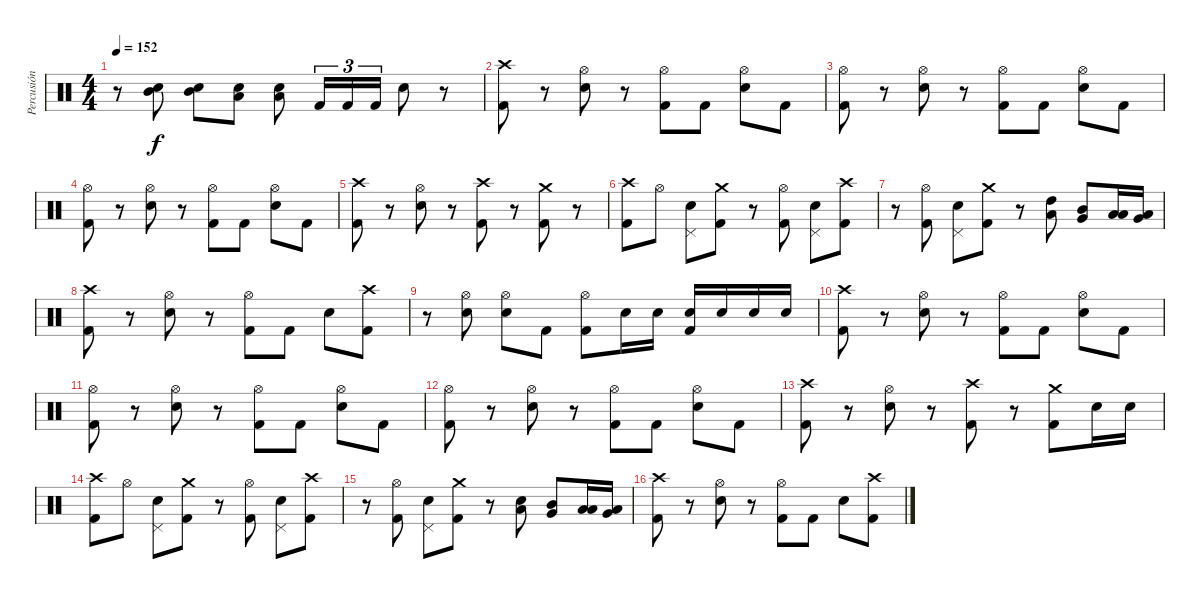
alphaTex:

\track ("Percusión" "Percusión") {instrument percussion}
\staff {score}
\articulation defaults
\ts (4 4)
\tempo 152
\clef neutral
\ks c
r.8{dy f} ("Snare (hit) 2" "Mid Tom (hit)").8 ("Snare (hit) 2" "Mid Tom (hit)").8 ("Snare (hit) 2" "Low Tom (hit)").8 ("Snare (hit) 2" "Low Tom (hit)").8 "Kick (hit) 2".16{tu (3 2)} "Kick (hit) 2".16{tu (3 2)} "Kick (hit) 2".16{tu (3 2)} "Snare (hit) 2".8 r.8 |
("Kick (hit) 2" "Crash high (hit)").8 r.8 ("Snare (hit) 2" "Hi-Hat (open)").8 r.8 ("Kick (hit) 2" "Hi-Hat (open)").8 "Kick (hit) 2".8 ("Snare (hit) 2" "Hi-Hat (open)").8 "Kick (hit) 2".8 |
("Kick (hit) 2" "Hi-Hat (open)").8 r.8 ("Snare (hit) 2" "Hi-Hat (open)").8 r.8 ("Kick (hit) 2" "Hi-Hat (open)").8 "Kick (hit) 2".8 ("Snare (hit) 2" "Hi-Hat (open)").8 "Kick (hit) 2".8 |
("Kick (hit) 2" "Hi-Hat (open)").8 r.8 ("Snare (hit) 2" "Hi-Hat (open)").8 r.8 ("Kick (hit) 2" "Hi-Hat (open)").8 "Kick (hit) 2".8 ("Snare (hit) 2" "Hi-Hat (open)").8 "Kick (hit) 2".8 |
("Kick (hit) 2" "Crash high (hit)").8 r.8 ("Snare (hit) 2" "Hi-Hat (open)").8 r.8 ("Kick (hit) 2" "Crash high (hit)").8 r.8 ("Kick (hit) 2" "Crash medium (hit)").8 r.8 |
("Kick (hit) 2" "Crash high (hit)").8 "Hi-Hat (open)".8 ("Snare (hit) 2" "Pedal Hi-Hat (hit)").8 ("Kick (hit) 2" "Crash medium (hit)").8 r.8 ("Kick (hit) 2" "Hi-Hat (open)").8 ("Snare (hit) 2" "Pedal Hi-Hat (hit)").8 ("Kick (hit) 2" "Crash high (hit)").8 |
r.8 ("Kick (hit) 2" "Hi-Hat (open)").8 ("Snare (hit) 2" "Pedal Hi-Hat (hit)").8 ("Kick (hit) 2" "Crash medium (hit)").8 r.8 ("High Tom (hit)" "Low Tom (hit)").8 ("Mid Tom (hit)" "Very Low Tom (hit)").8 ("Low Tom (hit)" "Low Floor Tom (hit)").16 ("Very Low Tom (hit)" "Low Floor Tom (hit)").16 |
("Kick (hit) 2" "Crash high (hit)").8 r.8 ("Snare (hit) 2" "Hi-Hat (open)").8 r.8 ("Kick (hit) 2" "Hi-Hat (open)").8 "Kick (hit) 2".8 "Snare (hit) 2".8 ("Kick (hit) 2" "Crash high (hit)").8 |
r.8 ("Snare (hit) 2" "Hi-Hat (open)").8 ("Snare (hit) 2" "Hi-Hat (open)").8 "Kick (hit) 2".8 ("Kick (hit) 2" "Hi-Hat (open)").8 "Snare (hit) 2".16 "Snare (hit) 2".16 ("Kick (hit) 2" "Snare (hit) 2").16 "Snare (hit) 2".16 "Snare (hit) 2".16 "Snare (hit) 2".16 |
("Kick (hit) 2" "Crash high (hit)").8 r.8 ("Snare (hit) 2" "Hi-Hat (open)").8 r.8 ("Kick (hit) 2" "Hi-Hat (open)").8 "Kick (hit) 2".8 ("Snare (hit) 2" "Hi-Hat (open)").8 "Kick (hit) 2".8 |
("Kick (hit) 2" "Hi-Hat (open)").8 r.8 ("Snare (hit) 2" "Hi-Hat (open)").8 r.8 ("Kick (hit) 2" "Hi-Hat (open)").8 "Kick (hit) 2".8 ("Snare (hit) 2" "Hi-Hat (open)").8 "Kick (hit) 2".8 |
("Kick (hit) 2" "Hi-Hat (open)").8 r.8 ("Snare (hit) 2" "Hi-Hat (open)").8 r.8 ("Kick (hit) 2" "Hi-Hat (open)").8 "Kick (hit) 2".8 ("Snare (hit) 2" "Hi-Hat (open)").8 "Kick (hit) 2".8 |
("Kick (hit) 2" "Crash high (hit)").8 r.8 ("Snare (hit) 2" "Hi-Hat (open)").8 r.8 ("Kick (hit) 2" "Crash high (hit)").8 r.8 ("Kick (hit) 2" "Crash medium (hit)").8 "Snare (hit) 2".16 "Snare (hit) 2".16 |
("Kick (hit) 2" "Crash high (hit)").8 "Hi-Hat (open)".8 ("Snare (hit) 2" "Pedal Hi-Hat (hit)").8 ("Kick (hit) 2" "Crash medium (hit)").8 r.8 ("Kick (hit) 2" "Hi-Hat (open)").8 ("Snare (hit) 2" "Pedal Hi-Hat (hit)").8 ("Kick (hit) 2" "Crash high (hit)").8 |
r.8 ("Kick (hit) 2" "Hi-Hat (open)").8 ("Snare (hit) 2" "Pedal Hi-Hat (hit)").8 ("Kick (hit) 2" "Crash medium (hit)").8 r.8 ("Snare (hit) 2" "Low Tom (hit)").8 ("Mid Tom (hit)" "Very Low Tom (hit)").8 ("Low Tom (hit)" "Low Floor Tom (hit)").16 ("Very Low Tom (hit)" "Low Floor Tom (hit)").16 |
("Kick (hit) 2" "Crash high (hit)").8 r.8 ("Snare (hit) 2" "Hi-Hat (open)").8 r.8 ("Kick (hit) 2" "Hi-Hat (open)").8 "Kick (hit) 2".8 "Snare (hit) 2".8 ("Kick (hit) 2" "Crash high (hit)").8
